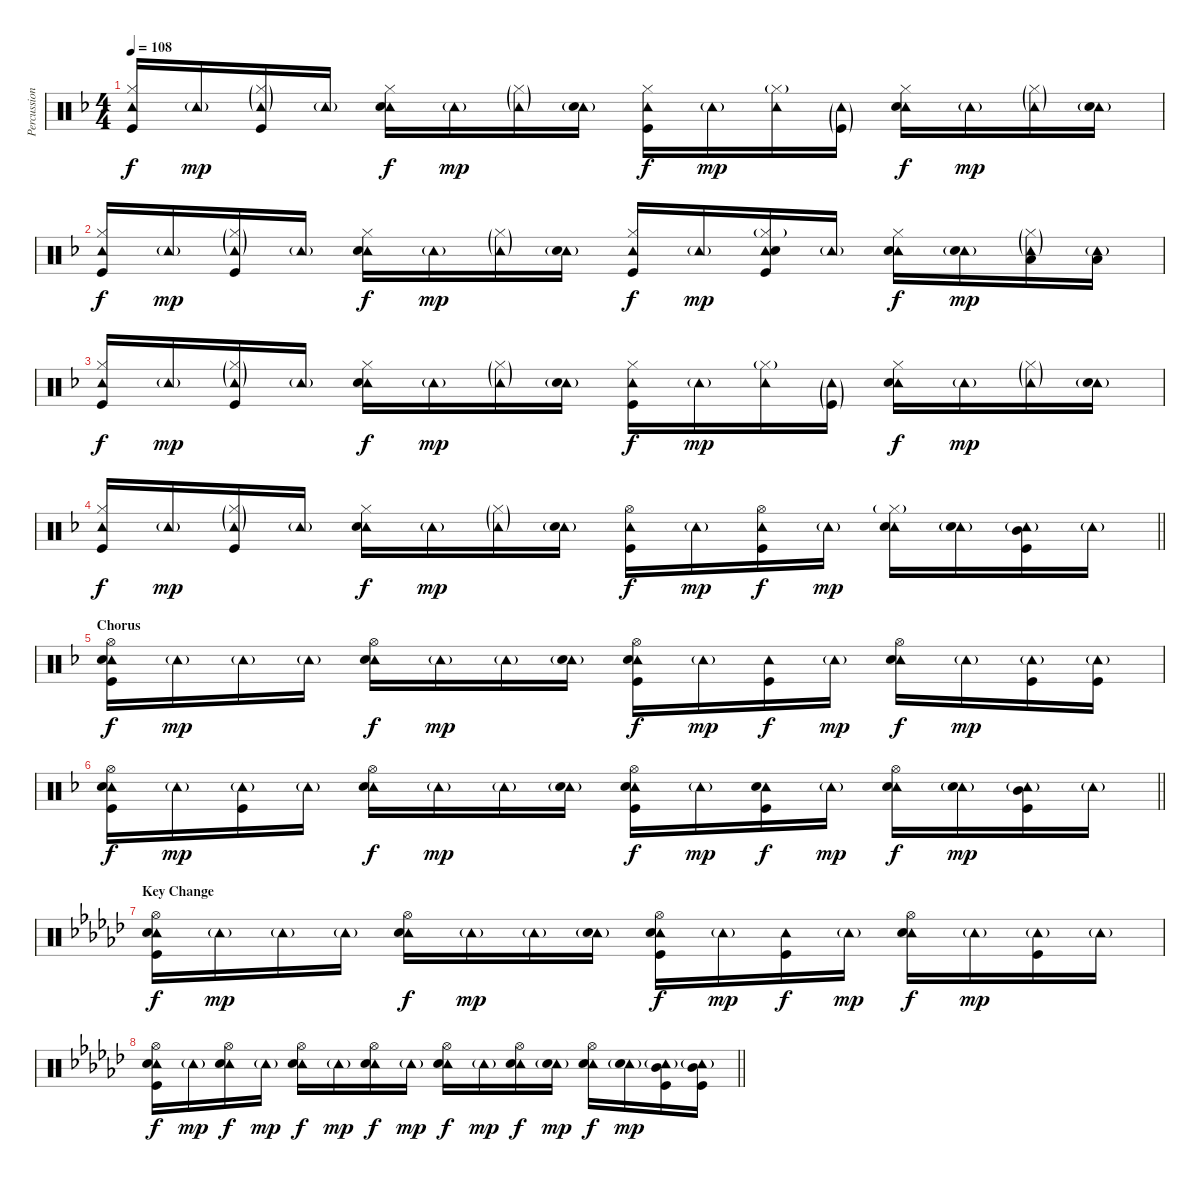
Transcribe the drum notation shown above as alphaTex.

\track ("Percussion" "Percussion") {instrument percussion}
\staff {score}
\articulation defaults
\ts (4 4)
\tempo 108
\clef neutral
\ks f
("Tambourine (hit)" "Hi-Hat (closed)" "Kick (hit)").16{dy f} "Tambourine (hit)"{g}.16{dy mp} ("Tambourine (hit)"{g} "Hi-Hat (closed)"{g} "Kick (hit)").16 "Tambourine (hit)"{g}.16 ("Tambourine (hit)" "Hi-Hat (closed)" "Snare (hit) 2").16{dy f} "Tambourine (hit)"{g}.16{dy mp} ("Tambourine (hit)"{g} "Hi-Hat (closed)"{g}).16 ("Tambourine (hit)"{g} "Snare (hit) 2"{g}).16 ("Tambourine (hit)" "Hi-Hat (closed)" "Kick (hit)").16{dy f} "Tambourine (hit)"{g}.16{dy mp} ("Tambourine (hit)" "Hi-Hat (closed)"{g}).16 ("Tambourine (hit)"{g} "Kick (hit)"{g}).16 ("Tambourine (hit)" "Hi-Hat (closed)" "Snare (hit) 2").16{dy f} "Tambourine (hit)"{g}.16{dy mp} ("Tambourine (hit)"{g} "Hi-Hat (closed)"{g}).16 ("Tambourine (hit)"{g} "Snare (hit) 2"{g}).16 |
("Tambourine (hit)" "Hi-Hat (closed)" "Kick (hit)").16{dy f} "Tambourine (hit)"{g}.16{dy mp} ("Tambourine (hit)"{g} "Hi-Hat (closed)"{g} "Kick (hit)").16 "Tambourine (hit)"{g}.16 ("Tambourine (hit)" "Hi-Hat (closed)" "Snare (hit) 2").16{dy f} "Tambourine (hit)"{g}.16{dy mp} ("Tambourine (hit)"{g} "Hi-Hat (closed)"{g}).16 ("Tambourine (hit)"{g} "Snare (hit) 2"{g}).16 ("Tambourine (hit)" "Hi-Hat (closed)" "Kick (hit)").16{dy f} "Tambourine (hit)"{g}.16{dy mp} ("Tambourine (hit)" "Hi-Hat (closed)"{g} "Snare (hit) 2" "Kick (hit)").16 "Tambourine (hit)"{g}.16 ("Tambourine (hit)" "Hi-Hat (closed)" "Snare (hit) 2").16{dy f} ("Tambourine (hit)"{g} "Snare (hit) 2").16{dy mp} ("Tambourine (hit)"{g} "Hi-Hat (closed)"{g} "Low Tom (hit)").16 ("Tambourine (hit)"{g} "Low Tom (hit)").16 |
("Tambourine (hit)" "Hi-Hat (closed)" "Kick (hit)").16{dy f} "Tambourine (hit)"{g}.16{dy mp} ("Tambourine (hit)"{g} "Hi-Hat (closed)"{g} "Kick (hit)").16 "Tambourine (hit)"{g}.16 ("Tambourine (hit)" "Hi-Hat (closed)" "Snare (hit) 2").16{dy f} "Tambourine (hit)"{g}.16{dy mp} ("Tambourine (hit)"{g} "Hi-Hat (closed)"{g}).16 ("Tambourine (hit)"{g} "Snare (hit) 2"{g}).16 ("Tambourine (hit)" "Hi-Hat (closed)" "Kick (hit)").16{dy f} "Tambourine (hit)"{g}.16{dy mp} ("Tambourine (hit)" "Hi-Hat (closed)"{g}).16 ("Tambourine (hit)"{g} "Kick (hit)"{g}).16 ("Tambourine (hit)" "Hi-Hat (closed)" "Snare (hit) 2").16{dy f} "Tambourine (hit)"{g}.16{dy mp} ("Tambourine (hit)"{g} "Hi-Hat (closed)"{g}).16 ("Tambourine (hit)"{g} "Snare (hit) 2"{g}).16 |
\barLineRight lightlight
("Tambourine (hit)" "Hi-Hat (closed)" "Kick (hit)").16{dy f} "Tambourine (hit)"{g}.16{dy mp} ("Tambourine (hit)"{g} "Hi-Hat (closed)"{g} "Kick (hit)").16 "Tambourine (hit)"{g}.16 ("Tambourine (hit)" "Hi-Hat (closed)" "Snare (hit) 2").16{dy f} "Tambourine (hit)"{g}.16{dy mp} ("Tambourine (hit)"{g} "Hi-Hat (closed)"{g}).16 ("Tambourine (hit)"{g} "Snare (hit) 2"{g}).16 ("Tambourine (hit)" "Hi-Hat (open)" "Kick (hit)").16{dy f} "Tambourine (hit)"{g}.16{dy mp} ("Tambourine (hit)" "Hi-Hat (open)" "Kick (hit)").16{dy f} "Tambourine (hit)"{g}.16{dy mp} ("Tambourine (hit)" "Hi-Hat (closed)"{g} "Snare (hit) 2").16 ("Tambourine (hit)"{g} "Snare (hit) 2").16 ("Tambourine (hit)"{g} "Mid Tom (hit)" "Kick (hit)").16 "Tambourine (hit)"{g}.16 |
\section ("" "Chorus")
("Tambourine (hit)" "Hi-Hat (open)" "Snare (hit) 2" "Kick (hit)").16{dy f} "Tambourine (hit)"{g}.16{dy mp} "Tambourine (hit)"{g}.16 "Tambourine (hit)"{g}.16 ("Tambourine (hit)" "Hi-Hat (open)" "Snare (hit) 2").16{dy f} "Tambourine (hit)"{g}.16{dy mp} "Tambourine (hit)"{g}.16 ("Tambourine (hit)"{g} "Snare (hit) 2").16 ("Tambourine (hit)" "Hi-Hat (open)" "Snare (hit) 2" "Kick (hit)").16{dy f} "Tambourine (hit)"{g}.16{dy mp} ("Tambourine (hit)" "Kick (hit)").16{dy f} "Tambourine (hit)"{g}.16{dy mp} ("Tambourine (hit)" "Hi-Hat (open)" "Snare (hit) 2").16{dy f} "Tambourine (hit)"{g}.16{dy mp} ("Tambourine (hit)"{g} "Kick (hit)").16 ("Tambourine (hit)"{g} "Kick (hit)").16 |
\barLineRight lightlight
("Tambourine (hit)" "Hi-Hat (open)" "Snare (hit) 2" "Kick (hit)").16{dy f} "Tambourine (hit)"{g}.16{dy mp} ("Tambourine (hit)"{g} "Kick (hit)").16 "Tambourine (hit)"{g}.16 ("Tambourine (hit)" "Hi-Hat (open)" "Snare (hit) 2").16{dy f} "Tambourine (hit)"{g}.16{dy mp} "Tambourine (hit)"{g}.16 ("Tambourine (hit)"{g} "Snare (hit) 2"{g}).16 ("Tambourine (hit)" "Hi-Hat (open)" "Snare (hit) 2" "Kick (hit)").16{dy f} "Tambourine (hit)"{g}.16{dy mp} ("Tambourine (hit)" "Snare (hit) 2" "Kick (hit)").16{dy f} "Tambourine (hit)"{g}.16{dy mp} ("Tambourine (hit)" "Hi-Hat (open)" "Snare (hit) 2").16{dy f} ("Tambourine (hit)"{g} "Snare (hit) 2").16{dy mp} ("Tambourine (hit)"{g} "Mid Tom (hit)" "Kick (hit)").16 "Tambourine (hit)"{g}.16 |
\section ("" "Key Change")
\ks gb
("Tambourine (hit)" "Hi-Hat (open)" "Snare (hit) 2" "Kick (hit)").16{dy f} "Tambourine (hit)"{g}.16{dy mp} "Tambourine (hit)"{g}.16 "Tambourine (hit)"{g}.16 ("Tambourine (hit)" "Hi-Hat (open)" "Snare (hit) 2").16{dy f} "Tambourine (hit)"{g}.16{dy mp} "Tambourine (hit)"{g}.16 ("Tambourine (hit)"{g} "Snare (hit) 2"{g}).16 ("Tambourine (hit)" "Hi-Hat (open)" "Snare (hit) 2" "Kick (hit)").16{dy f} "Tambourine (hit)"{g}.16{dy mp} ("Tambourine (hit)" "Kick (hit)").16{dy f} "Tambourine (hit)"{g}.16{dy mp} ("Tambourine (hit)" "Hi-Hat (open)" "Snare (hit) 2").16{dy f} "Tambourine (hit)"{g}.16{dy mp} ("Tambourine (hit)"{g} "Kick (hit)").16 "Tambourine (hit)"{g}.16 |
\barLineRight lightlight
("Tambourine (hit)" "Hi-Hat (open)" "Snare (hit) 2" "Kick (hit)").16{dy f} "Tambourine (hit)"{g}.16{dy mp} ("Tambourine (hit)" "Hi-Hat (open)" "Snare (hit) 2").16{dy f} "Tambourine (hit)"{g}.16{dy mp} ("Tambourine (hit)" "Hi-Hat (open)" "Snare (hit) 2").16{dy f} "Tambourine (hit)"{g}.16{dy mp} ("Tambourine (hit)" "Hi-Hat (open)" "Snare (hit) 2").16{dy f} "Tambourine (hit)"{g}.16{dy mp} ("Tambourine (hit)" "Hi-Hat (open)" "Snare (hit) 2").16{dy f} "Tambourine (hit)"{g}.16{dy mp} ("Tambourine (hit)" "Hi-Hat (open)" "Snare (hit) 2").16{dy f} ("Tambourine (hit)"{g} "Snare (hit) 2"{g}).16{dy mp} ("Tambourine (hit)" "Hi-Hat (open)" "Snare (hit) 2").16{dy f} ("Tambourine (hit)"{g} "Snare (hit) 2").16{dy mp} ("Tambourine (hit)"{g} "Mid Tom (hit)" "Kick (hit)").16 ("Tambourine (hit)"{g} "Mid Tom (hit)" "Kick (hit)").16
